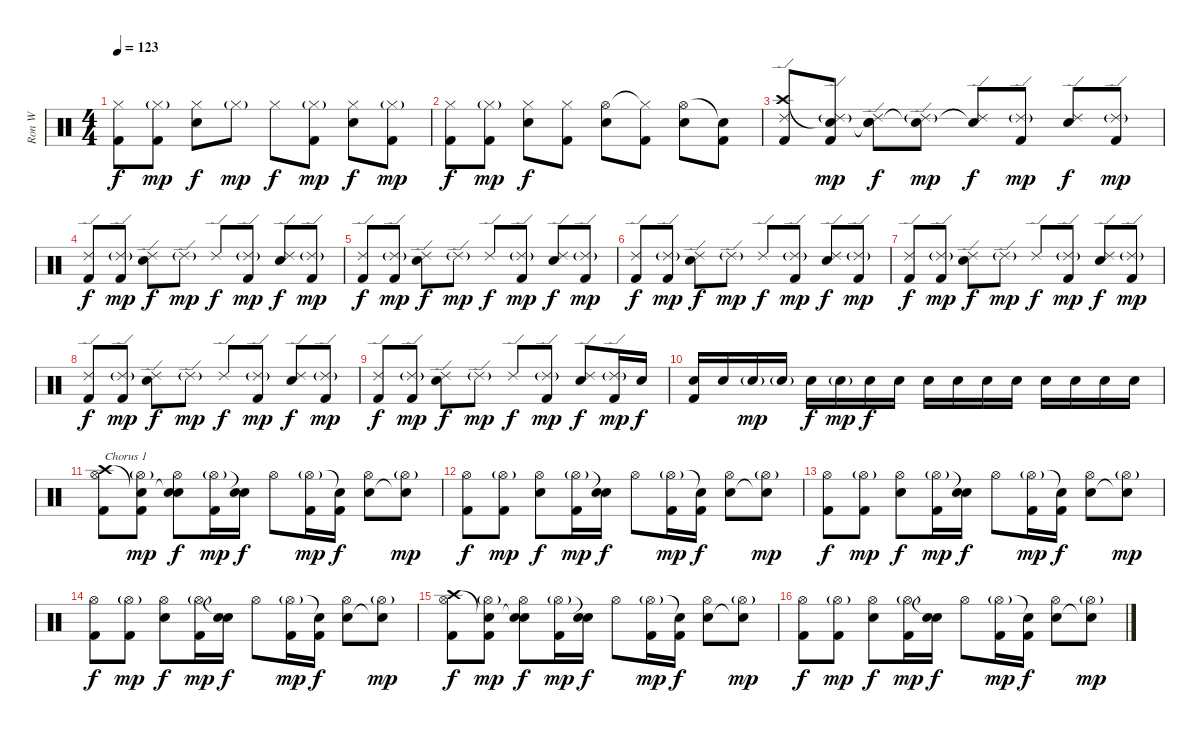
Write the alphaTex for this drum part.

\track ("Ron W" "Ron W") {instrument percussion}
\staff {score}
\articulation defaults
\ts (4 4)
\tempo 123
\clef neutral
\ks c
("Hi-Hat (closed)" "Kick (hit) 2").8{dy f balance 8} ("Hi-Hat (closed)"{g} "Kick (hit) 2").8{dy mp} ("Hi-Hat (closed)" "Electric Snare (hit)").8{dy f} "Hi-Hat (closed)"{g}.8{dy mp} "Hi-Hat (closed)".8{dy f} ("Hi-Hat (closed)"{g} "Kick (hit) 2").8{dy mp} ("Hi-Hat (closed)" "Electric Snare (hit)").8{dy f} ("Hi-Hat (closed)"{g} "Kick (hit) 2").8{dy mp} |
("Hi-Hat (closed)" "Kick (hit) 2").8{dy f balance 8} ("Hi-Hat (closed)"{g} "Kick (hit) 2").8{dy mp} ("Hi-Hat (closed)" "Electric Snare (hit)").8{dy f} ("Hi-Hat (closed)" "Kick (hit) 2").8 ("Hi-Hat (open)" "Electric Snare (hit)").8 ("Hi-Hat (closed)"{t} "Kick (hit) 2").8 ("Hi-Hat (open)" "Electric Snare (hit)").8 ("Snare (hit)"{t} "Kick (hit) 2").8 |
("Crash high (hit)" "Ride (edge) 2" "Kick (hit) 2").8{balance 8} ("Snare (hit)"{t} "Ride (edge) 2"{g} "Kick (hit) 2").8{dy mp} ("Snare (hit)"{t} "Ride (edge) 2" "Electric Snare (hit)").8{dy f} ("Snare (hit)"{t} "Ride (edge) 2"{g}).8{dy mp} ("Snare (hit)"{t} "Ride (edge) 2").8{dy f} ("Ride (edge) 2"{g} "Kick (hit) 2").8{dy mp} ("Ride (edge) 2" "Electric Snare (hit)").8{dy f} ("Ride (edge) 2"{g} "Kick (hit) 2").8{dy mp} |
("Ride (edge) 2" "Kick (hit) 2").8{dy f balance 8} ("Ride (edge) 2"{g} "Kick (hit) 2").8{dy mp} ("Ride (edge) 2" "Electric Snare (hit)").8{dy f} "Ride (edge) 2"{g}.8{dy mp} "Ride (edge) 2".8{dy f} ("Ride (edge) 2"{g} "Kick (hit) 2").8{dy mp} ("Ride (edge) 2" "Electric Snare (hit)").8{dy f} ("Ride (edge) 2"{g} "Kick (hit) 2").8{dy mp} |
("Ride (edge) 2" "Kick (hit) 2").8{dy f balance 8} ("Ride (edge) 2"{g} "Kick (hit) 2").8{dy mp} ("Ride (edge) 2" "Electric Snare (hit)").8{dy f} "Ride (edge) 2"{g}.8{dy mp} "Ride (edge) 2".8{dy f} ("Ride (edge) 2"{g} "Kick (hit) 2").8{dy mp} ("Ride (edge) 2" "Electric Snare (hit)").8{dy f} ("Ride (edge) 2"{g} "Kick (hit) 2").8{dy mp} |
("Ride (edge) 2" "Kick (hit) 2").8{dy f balance 8} ("Ride (edge) 2"{g} "Kick (hit) 2").8{dy mp} ("Ride (edge) 2" "Electric Snare (hit)").8{dy f} "Ride (edge) 2"{g}.8{dy mp} "Ride (edge) 2".8{dy f} ("Ride (edge) 2"{g} "Kick (hit) 2").8{dy mp} ("Ride (edge) 2" "Electric Snare (hit)").8{dy f} ("Ride (edge) 2"{g} "Kick (hit) 2").8{dy mp} |
("Ride (edge) 2" "Kick (hit) 2").8{dy f balance 8} ("Ride (edge) 2"{g} "Kick (hit) 2").8{dy mp} ("Ride (edge) 2" "Electric Snare (hit)").8{dy f} "Ride (edge) 2"{g}.8{dy mp} "Ride (edge) 2".8{dy f} ("Ride (edge) 2"{g} "Kick (hit) 2").8{dy mp} ("Ride (edge) 2" "Electric Snare (hit)").8{dy f} ("Ride (edge) 2"{g} "Kick (hit) 2").8{dy mp} |
("Ride (edge) 2" "Kick (hit) 2").8{dy f balance 8} ("Ride (edge) 2"{g} "Kick (hit) 2").8{dy mp} ("Ride (edge) 2" "Electric Snare (hit)").8{dy f} "Ride (edge) 2"{g}.8{dy mp} "Ride (edge) 2".8{dy f} ("Ride (edge) 2"{g} "Kick (hit) 2").8{dy mp} ("Ride (edge) 2" "Electric Snare (hit)").8{dy f} ("Ride (edge) 2"{g} "Kick (hit) 2").8{dy mp} |
("Ride (edge) 2" "Kick (hit) 2").8{dy f balance 8} ("Ride (edge) 2"{g} "Kick (hit) 2").8{dy mp} ("Ride (edge) 2" "Electric Snare (hit)").8{dy f} "Ride (edge) 2"{g}.8{dy mp} "Ride (edge) 2".8{dy f} ("Ride (edge) 2"{g} "Kick (hit) 2").8{dy mp} ("Ride (edge) 2" "Electric Snare (hit)").8{dy f} ("Ride (edge) 2"{g} "Kick (hit) 2").16{dy mp} "Electric Snare (hit)".16{dy f} |
("Electric Snare (hit)" "Kick (hit) 2").16{balance 8} "Electric Snare (hit)".16 "Electric Snare (hit)"{g}.16{dy mp} "Electric Snare (hit)"{g}.16 "Electric Snare (hit)".16{dy f} "Electric Snare (hit)"{g}.16{dy mp} "Electric Snare (hit)".16{dy f} "Electric Snare (hit)".16 "Electric Snare (hit)".16 "Electric Snare (hit)".16 "Electric Snare (hit)".16 "Electric Snare (hit)".16 "Electric Snare (hit)".16 "Electric Snare (hit)".16 "Electric Snare (hit)".16 "Electric Snare (hit)".16 |
("Crash high (hit)" "Hi-Hat (open)" "Kick (hit) 2").8{txt "Chorus 1" volume 12 balance 8} ("Snare (hit)"{t} "Hi-Hat (open)"{g} "Kick (hit) 2").8{dy mp} ("Snare (hit)"{t} "Hi-Hat (open)" "Electric Snare (hit)").8{dy f} ("Hi-Hat (open)"{g} "Kick (hit) 2").16{dy mp} ("Snare (hit)"{t} "Electric Snare (hit)").16{dy f} "Hi-Hat (open)".8 ("Hi-Hat (open)"{g} "Kick (hit) 2").16{dy mp} ("Snare (hit)"{t} "Kick (hit) 2").16{dy f} ("Hi-Hat (open)" "Electric Snare (hit)").8 ("Hi-Hat (open)"{g} "Snare (hit)"{t}).8{dy mp} |
("Hi-Hat (open)" "Kick (hit) 2").8{dy f volume 12} ("Hi-Hat (open)"{g} "Kick (hit) 2").8{dy mp} ("Hi-Hat (open)" "Electric Snare (hit)").8{dy f} ("Hi-Hat (open)"{g} "Kick (hit) 2").16{dy mp} ("Snare (hit)"{t} "Electric Snare (hit)").16{dy f} "Hi-Hat (open)".8 ("Hi-Hat (open)"{g} "Kick (hit) 2").16{dy mp} ("Snare (hit)"{t} "Kick (hit) 2").16{dy f} ("Hi-Hat (open)" "Electric Snare (hit)").8 ("Hi-Hat (open)"{g} "Snare (hit)"{t}).8{dy mp} |
("Hi-Hat (open)" "Kick (hit) 2").8{dy f volume 12} ("Hi-Hat (open)"{g} "Kick (hit) 2").8{dy mp} ("Hi-Hat (open)" "Electric Snare (hit)").8{dy f} ("Hi-Hat (open)"{g} "Kick (hit) 2").16{dy mp} ("Snare (hit)"{t} "Electric Snare (hit)").16{dy f} "Hi-Hat (open)".8 ("Hi-Hat (open)"{g} "Kick (hit) 2").16{dy mp} ("Snare (hit)"{t} "Kick (hit) 2").16{dy f} ("Hi-Hat (open)" "Electric Snare (hit)").8 ("Hi-Hat (open)"{g} "Snare (hit)"{t}).8{dy mp} |
("Hi-Hat (open)" "Kick (hit) 2").8{dy f volume 12} ("Hi-Hat (open)"{g} "Kick (hit) 2").8{dy mp} ("Hi-Hat (open)" "Electric Snare (hit)").8{dy f} ("Hi-Hat (open)"{g} "Kick (hit) 2").16{dy mp} ("Snare (hit)"{t} "Electric Snare (hit)").16{dy f} "Hi-Hat (open)".8 ("Hi-Hat (open)"{g} "Kick (hit) 2").16{dy mp} ("Snare (hit)"{t} "Kick (hit) 2").16{dy f} ("Hi-Hat (open)" "Electric Snare (hit)").8 ("Hi-Hat (open)"{g} "Snare (hit)"{t}).8{dy mp} |
("Crash high (hit)" "Hi-Hat (open)" "Kick (hit) 2").8{dy f volume 12 balance 8} ("Snare (hit)"{t} "Hi-Hat (open)"{g} "Kick (hit) 2").8{dy mp} ("Snare (hit)"{t} "Hi-Hat (open)" "Electric Snare (hit)").8{dy f} ("Hi-Hat (open)"{g} "Kick (hit) 2").16{dy mp} ("Snare (hit)"{t} "Electric Snare (hit)").16{dy f} "Hi-Hat (open)".8 ("Hi-Hat (open)"{g} "Kick (hit) 2").16{dy mp} ("Snare (hit)"{t} "Kick (hit) 2").16{dy f} ("Hi-Hat (open)" "Electric Snare (hit)").8 ("Hi-Hat (open)"{g} "Snare (hit)"{t}).8{dy mp} |
("Hi-Hat (open)" "Kick (hit) 2").8{dy f volume 12} ("Hi-Hat (open)"{g} "Kick (hit) 2").8{dy mp} ("Hi-Hat (open)" "Electric Snare (hit)").8{dy f} ("Hi-Hat (open)"{g} "Kick (hit) 2").16{dy mp} ("Snare (hit)"{t} "Electric Snare (hit)").16{dy f} "Hi-Hat (open)".8 ("Hi-Hat (open)"{g} "Kick (hit) 2").16{dy mp} ("Snare (hit)"{t} "Kick (hit) 2").16{dy f} ("Hi-Hat (open)" "Electric Snare (hit)").8 ("Hi-Hat (open)"{g} "Snare (hit)"{t}).8{dy mp}
